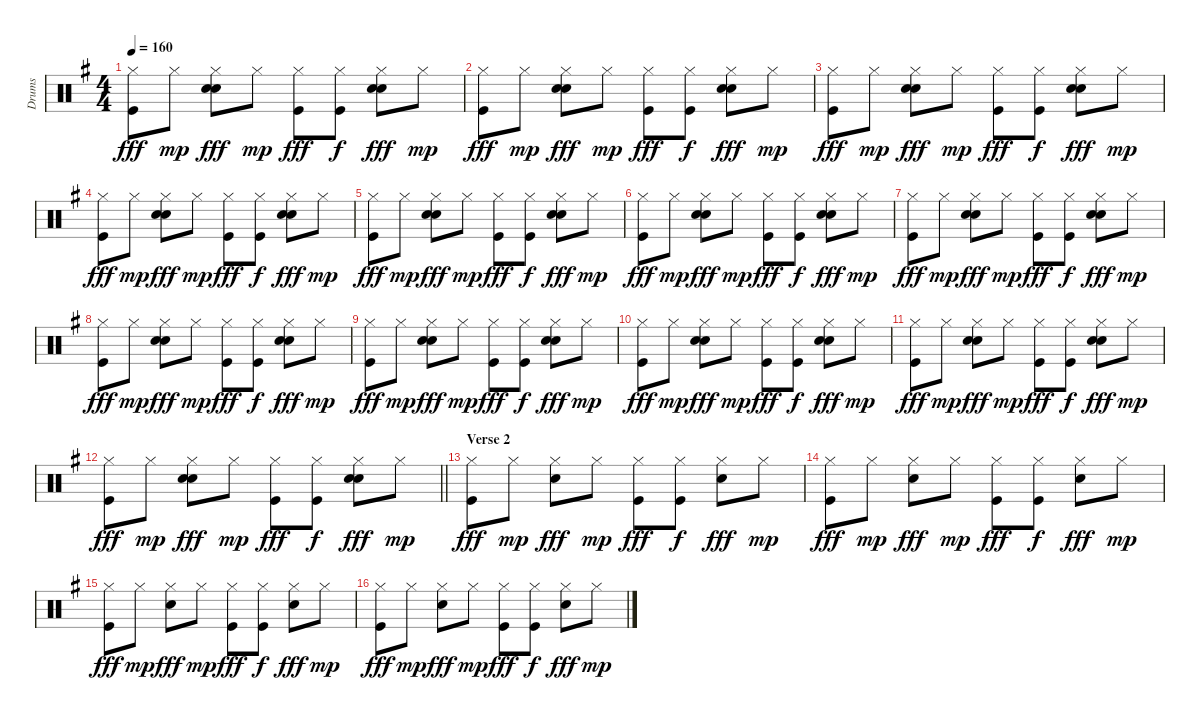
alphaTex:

\track ("Drums" "Drums") {instrument percussion}
\staff {score}
\articulation defaults
\ts (4 4)
\tempo 160
\clef neutral
\ks g
("Hi-Hat (closed)" "Kick (hit)").8{dy fff} "Hi-Hat (closed)".8{dy mp} ("Snare (hit) 2" "Hi-Hat (closed)" "Electric Snare (hit)").8{dy fff} "Hi-Hat (closed)".8{dy mp} ("Hi-Hat (closed)" "Kick (hit)").8{dy fff} ("Hi-Hat (closed)" "Kick (hit)").8{dy f} ("Snare (hit) 2" "Hi-Hat (closed)" "Electric Snare (hit)").8{dy fff} "Hi-Hat (closed)".8{dy mp} |
("Hi-Hat (closed)" "Kick (hit)").8{dy fff} "Hi-Hat (closed)".8{dy mp} ("Snare (hit) 2" "Hi-Hat (closed)" "Electric Snare (hit)").8{dy fff} "Hi-Hat (closed)".8{dy mp} ("Hi-Hat (closed)" "Kick (hit)").8{dy fff} ("Hi-Hat (closed)" "Kick (hit)").8{dy f} ("Snare (hit) 2" "Hi-Hat (closed)" "Electric Snare (hit)").8{dy fff} "Hi-Hat (closed)".8{dy mp} |
("Hi-Hat (closed)" "Kick (hit)").8{dy fff} "Hi-Hat (closed)".8{dy mp} ("Snare (hit) 2" "Hi-Hat (closed)" "Electric Snare (hit)").8{dy fff} "Hi-Hat (closed)".8{dy mp} ("Hi-Hat (closed)" "Kick (hit)").8{dy fff} ("Hi-Hat (closed)" "Kick (hit)").8{dy f} ("Snare (hit) 2" "Hi-Hat (closed)" "Electric Snare (hit)").8{dy fff} "Hi-Hat (closed)".8{dy mp} |
("Hi-Hat (closed)" "Kick (hit)").8{dy fff} "Hi-Hat (closed)".8{dy mp} ("Snare (hit) 2" "Hi-Hat (closed)" "Electric Snare (hit)").8{dy fff} "Hi-Hat (closed)".8{dy mp} ("Hi-Hat (closed)" "Kick (hit)").8{dy fff} ("Hi-Hat (closed)" "Kick (hit)").8{dy f} ("Snare (hit) 2" "Hi-Hat (closed)" "Electric Snare (hit)").8{dy fff} "Hi-Hat (closed)".8{dy mp} |
("Hi-Hat (closed)" "Kick (hit)").8{dy fff} "Hi-Hat (closed)".8{dy mp} ("Snare (hit) 2" "Hi-Hat (closed)" "Electric Snare (hit)").8{dy fff} "Hi-Hat (closed)".8{dy mp} ("Hi-Hat (closed)" "Kick (hit)").8{dy fff} ("Hi-Hat (closed)" "Kick (hit)").8{dy f} ("Snare (hit) 2" "Hi-Hat (closed)" "Electric Snare (hit)").8{dy fff} "Hi-Hat (closed)".8{dy mp} |
("Hi-Hat (closed)" "Kick (hit)").8{dy fff} "Hi-Hat (closed)".8{dy mp} ("Snare (hit) 2" "Hi-Hat (closed)" "Electric Snare (hit)").8{dy fff} "Hi-Hat (closed)".8{dy mp} ("Hi-Hat (closed)" "Kick (hit)").8{dy fff} ("Hi-Hat (closed)" "Kick (hit)").8{dy f} ("Snare (hit) 2" "Hi-Hat (closed)" "Electric Snare (hit)").8{dy fff} "Hi-Hat (closed)".8{dy mp} |
("Hi-Hat (closed)" "Kick (hit)").8{dy fff} "Hi-Hat (closed)".8{dy mp} ("Snare (hit) 2" "Hi-Hat (closed)" "Electric Snare (hit)").8{dy fff} "Hi-Hat (closed)".8{dy mp} ("Hi-Hat (closed)" "Kick (hit)").8{dy fff} ("Hi-Hat (closed)" "Kick (hit)").8{dy f} ("Snare (hit) 2" "Hi-Hat (closed)" "Electric Snare (hit)").8{dy fff} "Hi-Hat (closed)".8{dy mp} |
("Hi-Hat (closed)" "Kick (hit)").8{dy fff} "Hi-Hat (closed)".8{dy mp} ("Snare (hit) 2" "Hi-Hat (closed)" "Electric Snare (hit)").8{dy fff} "Hi-Hat (closed)".8{dy mp} ("Hi-Hat (closed)" "Kick (hit)").8{dy fff} ("Hi-Hat (closed)" "Kick (hit)").8{dy f} ("Snare (hit) 2" "Hi-Hat (closed)" "Electric Snare (hit)").8{dy fff} "Hi-Hat (closed)".8{dy mp} |
("Hi-Hat (closed)" "Kick (hit)").8{dy fff} "Hi-Hat (closed)".8{dy mp} ("Snare (hit) 2" "Hi-Hat (closed)" "Electric Snare (hit)").8{dy fff} "Hi-Hat (closed)".8{dy mp} ("Hi-Hat (closed)" "Kick (hit)").8{dy fff} ("Hi-Hat (closed)" "Kick (hit)").8{dy f} ("Snare (hit) 2" "Hi-Hat (closed)" "Electric Snare (hit)").8{dy fff} "Hi-Hat (closed)".8{dy mp} |
("Hi-Hat (closed)" "Kick (hit)").8{dy fff} "Hi-Hat (closed)".8{dy mp} ("Snare (hit) 2" "Hi-Hat (closed)" "Electric Snare (hit)").8{dy fff} "Hi-Hat (closed)".8{dy mp} ("Hi-Hat (closed)" "Kick (hit)").8{dy fff} ("Hi-Hat (closed)" "Kick (hit)").8{dy f} ("Snare (hit) 2" "Hi-Hat (closed)" "Electric Snare (hit)").8{dy fff} "Hi-Hat (closed)".8{dy mp} |
("Hi-Hat (closed)" "Kick (hit)").8{dy fff} "Hi-Hat (closed)".8{dy mp} ("Snare (hit) 2" "Hi-Hat (closed)" "Electric Snare (hit)").8{dy fff} "Hi-Hat (closed)".8{dy mp} ("Hi-Hat (closed)" "Kick (hit)").8{dy fff} ("Hi-Hat (closed)" "Kick (hit)").8{dy f} ("Snare (hit) 2" "Hi-Hat (closed)" "Electric Snare (hit)").8{dy fff} "Hi-Hat (closed)".8{dy mp} |
\barLineRight lightlight
("Hi-Hat (closed)" "Kick (hit)").8{dy fff} "Hi-Hat (closed)".8{dy mp} ("Snare (hit) 2" "Hi-Hat (closed)" "Electric Snare (hit)").8{dy fff} "Hi-Hat (closed)".8{dy mp} ("Hi-Hat (closed)" "Kick (hit)").8{dy fff} ("Hi-Hat (closed)" "Kick (hit)").8{dy f} ("Snare (hit) 2" "Hi-Hat (closed)" "Electric Snare (hit)").8{dy fff} "Hi-Hat (closed)".8{dy mp} |
\section ("" "Verse 2")
("Hi-Hat (closed)" "Kick (hit)").8{dy fff} "Hi-Hat (closed)".8{dy mp} ("Snare (hit) 2" "Hi-Hat (closed)").8{dy fff} "Hi-Hat (closed)".8{dy mp} ("Hi-Hat (closed)" "Kick (hit)").8{dy fff} ("Hi-Hat (closed)" "Kick (hit)").8{dy f} ("Snare (hit) 2" "Hi-Hat (closed)").8{dy fff} "Hi-Hat (closed)".8{dy mp} |
("Hi-Hat (closed)" "Kick (hit)").8{dy fff} "Hi-Hat (closed)".8{dy mp} ("Snare (hit) 2" "Hi-Hat (closed)").8{dy fff} "Hi-Hat (closed)".8{dy mp} ("Hi-Hat (closed)" "Kick (hit)").8{dy fff} ("Hi-Hat (closed)" "Kick (hit)").8{dy f} ("Snare (hit) 2" "Hi-Hat (closed)").8{dy fff} "Hi-Hat (closed)".8{dy mp} |
("Hi-Hat (closed)" "Kick (hit)").8{dy fff} "Hi-Hat (closed)".8{dy mp} ("Snare (hit) 2" "Hi-Hat (closed)").8{dy fff} "Hi-Hat (closed)".8{dy mp} ("Hi-Hat (closed)" "Kick (hit)").8{dy fff} ("Hi-Hat (closed)" "Kick (hit)").8{dy f} ("Snare (hit) 2" "Hi-Hat (closed)").8{dy fff} "Hi-Hat (closed)".8{dy mp} |
("Hi-Hat (closed)" "Kick (hit)").8{dy fff} "Hi-Hat (closed)".8{dy mp} ("Snare (hit) 2" "Hi-Hat (closed)").8{dy fff} "Hi-Hat (closed)".8{dy mp} ("Hi-Hat (closed)" "Kick (hit)").8{dy fff} ("Hi-Hat (closed)" "Kick (hit)").8{dy f} ("Snare (hit) 2" "Hi-Hat (closed)").8{dy fff} "Hi-Hat (closed)".8{dy mp}
